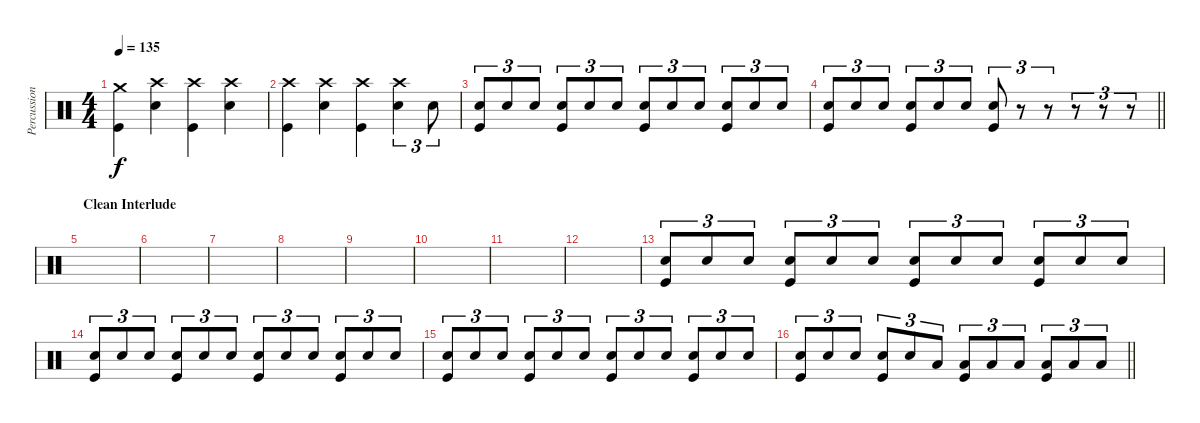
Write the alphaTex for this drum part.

\track ("Percussion" "Percussion") {instrument percussion}
\staff {score}
\articulation defaults
\ts (4 4)
\tempo 135
\clef neutral
\ks c
("Crash medium (hit)" "Kick (hit)").4{dy f} ("Crash high (hit)" "Electric Snare (hit)").4 ("Crash high (hit)" "Kick (hit)").4 ("Crash high (hit)" "Electric Snare (hit)").4 |
("Crash high (hit)" "Kick (hit)").4 ("Crash high (hit)" "Electric Snare (hit)").4 ("Crash high (hit)" "Kick (hit)").4 ("Crash high (hit)" "Electric Snare (hit)").4{tu (3 2)} "Electric Snare (hit)".8{tu (3 2)} |
("Snare (hit) 2" "Kick (hit)").8{tu (3 2)} "Snare (hit) 2".8{tu (3 2)} "Snare (hit) 2".8{tu (3 2)} ("Snare (hit) 2" "Kick (hit)").8{tu (3 2)} "Snare (hit) 2".8{tu (3 2)} "Snare (hit) 2".8{tu (3 2)} ("Snare (hit) 2" "Kick (hit)").8{tu (3 2)} "Snare (hit) 2".8{tu (3 2)} "Snare (hit) 2".8{tu (3 2)} ("Snare (hit) 2" "Kick (hit)").8{tu (3 2)} "Snare (hit) 2".8{tu (3 2)} "Snare (hit) 2".8{tu (3 2)} |
\barLineRight lightlight
("Snare (hit) 2" "Kick (hit)").8{tu (3 2)} "Snare (hit) 2".8{tu (3 2)} "Snare (hit) 2".8{tu (3 2)} ("Snare (hit) 2" "Kick (hit)").8{tu (3 2)} "Snare (hit) 2".8{tu (3 2)} "Snare (hit) 2".8{tu (3 2)} ("Snare (hit) 2" "Kick (hit)").8{tu (3 2)} r.8{tu (3 2)} r.8{tu (3 2)} r.8{tu (3 2)} r.8{tu (3 2)} r.8{tu (3 2)} |
\section ("" "Clean Interlude")
|
|
|
|
|
|
|
|
("Snare (hit) 2" "Kick (hit)").8{tu (3 2)} "Snare (hit) 2".8{tu (3 2)} "Snare (hit) 2".8{tu (3 2)} ("Snare (hit) 2" "Kick (hit)").8{tu (3 2)} "Snare (hit) 2".8{tu (3 2)} "Snare (hit) 2".8{tu (3 2)} ("Snare (hit) 2" "Kick (hit)").8{tu (3 2)} "Snare (hit) 2".8{tu (3 2)} "Snare (hit) 2".8{tu (3 2)} ("Snare (hit) 2" "Kick (hit)").8{tu (3 2)} "Snare (hit) 2".8{tu (3 2)} "Snare (hit) 2".8{tu (3 2)} |
("Snare (hit) 2" "Kick (hit)").8{tu (3 2)} "Snare (hit) 2".8{tu (3 2)} "Snare (hit) 2".8{tu (3 2)} ("Snare (hit) 2" "Kick (hit)").8{tu (3 2)} "Snare (hit) 2".8{tu (3 2)} "Snare (hit) 2".8{tu (3 2)} ("Snare (hit) 2" "Kick (hit)").8{tu (3 2)} "Snare (hit) 2".8{tu (3 2)} "Snare (hit) 2".8{tu (3 2)} ("Snare (hit) 2" "Kick (hit)").8{tu (3 2)} "Snare (hit) 2".8{tu (3 2)} "Snare (hit) 2".8{tu (3 2)} |
("Snare (hit) 2" "Kick (hit)").8{tu (3 2)} "Snare (hit) 2".8{tu (3 2)} "Snare (hit) 2".8{tu (3 2)} ("Snare (hit) 2" "Kick (hit)").8{tu (3 2)} "Snare (hit) 2".8{tu (3 2)} "Snare (hit) 2".8{tu (3 2)} ("Snare (hit) 2" "Kick (hit)").8{tu (3 2)} "Snare (hit) 2".8{tu (3 2)} "Snare (hit) 2".8{tu (3 2)} ("Snare (hit) 2" "Kick (hit)").8{tu (3 2)} "Snare (hit) 2".8{tu (3 2)} "Snare (hit) 2".8{tu (3 2)} |
\barLineRight lightlight
("Snare (hit) 2" "Kick (hit)").8{tu (3 2)} "Snare (hit) 2".8{tu (3 2)} "Snare (hit) 2".8{tu (3 2)} ("Snare (hit) 2" "Kick (hit)").8{tu (3 2)} "Snare (hit) 2".8{tu (3 2)} "Low Tom (hit)".8{tu (3 2)} ("Low Tom (hit)" "Kick (hit)").8{tu (3 2)} "Low Floor Tom (hit)".8{tu (3 2)} "Low Floor Tom (hit)".8{tu (3 2)} ("Low Floor Tom (hit)" "Kick (hit)").8{tu (3 2)} "Low Floor Tom (hit)".8{tu (3 2)} "Low Floor Tom (hit)".8{tu (3 2)}
